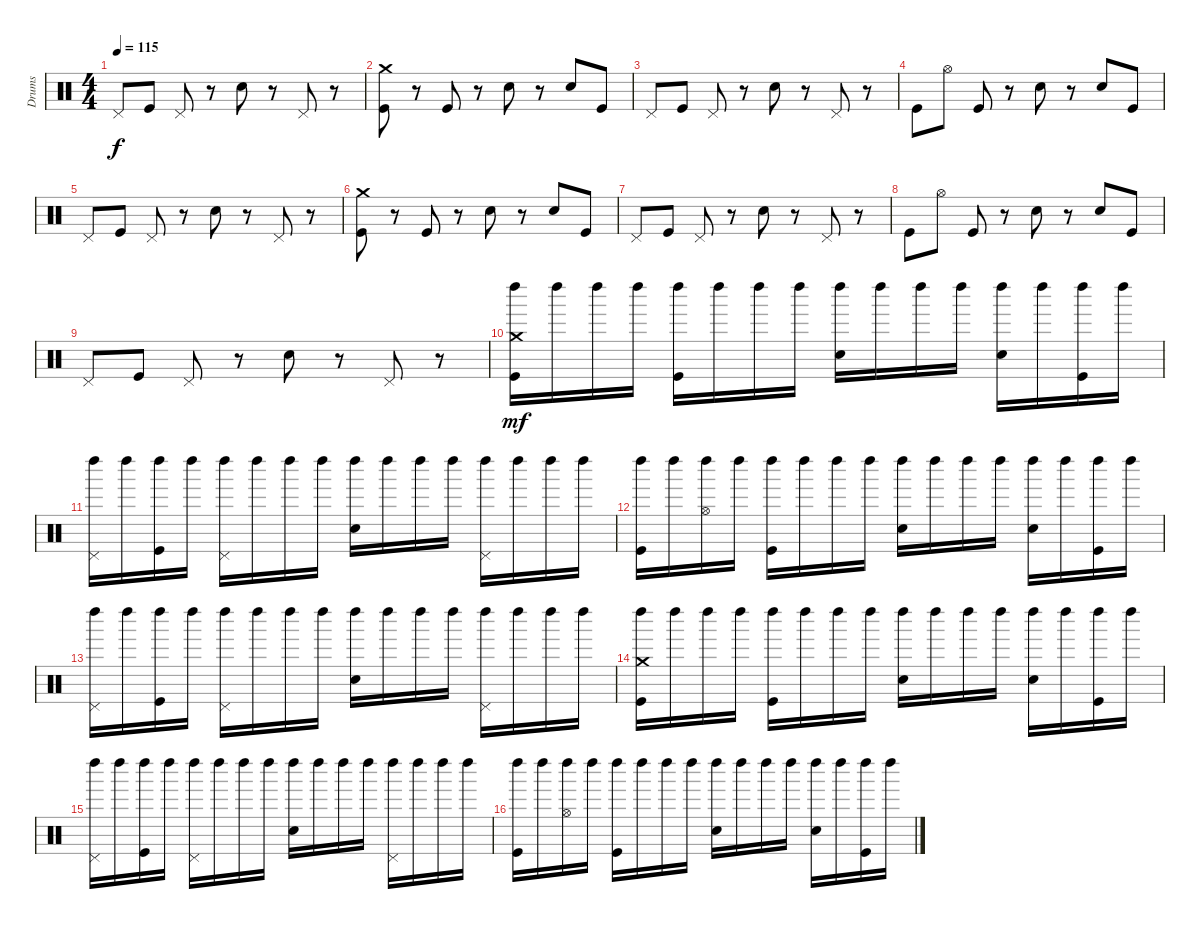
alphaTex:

\track ("Drums" "Drums") {instrument percussion}
\staff {score}
\articulation defaults
\ts (4 4)
\tempo 115
\clef neutral
\ks c "Pedal Hi-Hat (hit)".8{dy f} "Kick (hit)".8 "Pedal Hi-Hat (hit)".8
r.8 "Snare (hit) 2".8 r.8 "Pedal Hi-Hat (hit)".8 r.8 |
("Crash medium (hit)" "Kick (hit)").8 r.8 "Kick (hit)".8 r.8 "Snare (hit) 2".8 r.8 "Snare (hit) 2".8 "Kick (hit)".8 |
"Pedal Hi-Hat (hit)".8 "Kick (hit)".8 "Pedal Hi-Hat (hit)".8 r.8 "Snare (hit) 2".8 r.8 "Pedal Hi-Hat (hit)".8 r.8 |
"Kick (hit)".8 "Hi-Hat (open)".8 "Kick (hit)".8 r.8 "Snare (hit) 2".8 r.8 "Snare (hit) 2".8 "Kick (hit)".8 |
"Pedal Hi-Hat (hit)".8 "Kick (hit)".8 "Pedal Hi-Hat (hit)".8 r.8 "Snare (hit) 2".8 r.8 "Pedal Hi-Hat (hit)".8 r.8 |
("Crash medium (hit)" "Kick (hit)").8 r.8 "Kick (hit)".8 r.8 "Snare (hit) 2".8 r.8 "Snare (hit) 2".8 "Kick (hit)".8 |
"Pedal Hi-Hat (hit)".8 "Kick (hit)".8 "Pedal Hi-Hat (hit)".8 r.8 "Snare (hit) 2".8 r.8 "Pedal Hi-Hat (hit)".8 r.8 |
"Kick (hit)".8 "Hi-Hat (open)".8 "Kick (hit)".8 r.8 "Snare (hit) 2".8 r.8 "Snare (hit) 2".8 "Kick (hit)".8 |
"Pedal Hi-Hat (hit)".8 "Kick (hit)".8 "Pedal Hi-Hat (hit)".8 r.8 "Snare (hit) 2".8 r.8 "Pedal Hi-Hat (hit)".8 r.8 |
("Left Maraca (hit)" "Crash medium (hit)" "Kick (hit)").16{dy mf} "Left Maraca (hit)".16 "Left Maraca (hit)".16 "Left Maraca (hit)".16 ("Left Maraca (hit)" "Kick (hit)").16 "Left Maraca (hit)".16 "Left Maraca (hit)".16 "Left Maraca (hit)".16 ("Left Maraca (hit)" "Snare (hit) 2").16 "Left Maraca (hit)".16 "Left Maraca (hit)".16 "Left Maraca (hit)".16 ("Left Maraca (hit)" "Snare (hit) 2").16 "Left Maraca (hit)".16 ("Left Maraca (hit)" "Kick (hit)").16 "Left Maraca (hit)".16 |
("Left Maraca (hit)" "Pedal Hi-Hat (hit)").16 "Left Maraca (hit)".16 ("Left Maraca (hit)" "Kick (hit)").16 "Left Maraca (hit)".16 ("Left Maraca (hit)" "Pedal Hi-Hat (hit)").16 "Left Maraca (hit)".16 "Left Maraca (hit)".16 "Left Maraca (hit)".16 ("Left Maraca (hit)" "Snare (hit) 2").16 "Left Maraca (hit)".16 "Left Maraca (hit)".16 "Left Maraca (hit)".16 ("Left Maraca (hit)" "Pedal Hi-Hat (hit)").16 "Left Maraca (hit)".16 "Left Maraca (hit)".16 "Left Maraca (hit)".16 |
("Left Maraca (hit)" "Kick (hit)").16 "Left Maraca (hit)".16 ("Left Maraca (hit)" "Hi-Hat (open)").16 "Left Maraca (hit)".16 ("Left Maraca (hit)" "Kick (hit)").16 "Left Maraca (hit)".16 "Left Maraca (hit)".16 "Left Maraca (hit)".16 ("Left Maraca (hit)" "Snare (hit) 2").16 "Left Maraca (hit)".16 "Left Maraca (hit)".16 "Left Maraca (hit)".16 ("Left Maraca (hit)" "Snare (hit) 2").16 "Left Maraca (hit)".16 ("Left Maraca (hit)" "Kick (hit)").16 "Left Maraca (hit)".16 |
("Left Maraca (hit)" "Pedal Hi-Hat (hit)").16 "Left Maraca (hit)".16 ("Left Maraca (hit)" "Kick (hit)").16 "Left Maraca (hit)".16 ("Left Maraca (hit)" "Pedal Hi-Hat (hit)").16 "Left Maraca (hit)".16 "Left Maraca (hit)".16 "Left Maraca (hit)".16 ("Left Maraca (hit)" "Snare (hit) 2").16 "Left Maraca (hit)".16 "Left Maraca (hit)".16 "Left Maraca (hit)".16 ("Left Maraca (hit)" "Pedal Hi-Hat (hit)").16 "Left Maraca (hit)".16 "Left Maraca (hit)".16 "Left Maraca (hit)".16 |
("Left Maraca (hit)" "Crash medium (hit)" "Kick (hit)").16 "Left Maraca (hit)".16 "Left Maraca (hit)".16 "Left Maraca (hit)".16 ("Left Maraca (hit)" "Kick (hit)").16 "Left Maraca (hit)".16 "Left Maraca (hit)".16 "Left Maraca (hit)".16 ("Left Maraca (hit)" "Snare (hit) 2").16 "Left Maraca (hit)".16 "Left Maraca (hit)".16 "Left Maraca (hit)".16 ("Left Maraca (hit)" "Snare (hit) 2").16 "Left Maraca (hit)".16 ("Left Maraca (hit)" "Kick (hit)").16 "Left Maraca (hit)".16 |
("Left Maraca (hit)" "Pedal Hi-Hat (hit)").16 "Left Maraca (hit)".16 ("Left Maraca (hit)" "Kick (hit)").16 "Left Maraca (hit)".16 ("Left Maraca (hit)" "Pedal Hi-Hat (hit)").16 "Left Maraca (hit)".16 "Left Maraca (hit)".16 "Left Maraca (hit)".16 ("Left Maraca (hit)" "Snare (hit) 2").16 "Left Maraca (hit)".16 "Left Maraca (hit)".16 "Left Maraca (hit)".16 ("Left Maraca (hit)" "Pedal Hi-Hat (hit)").16 "Left Maraca (hit)".16 "Left Maraca (hit)".16 "Left Maraca (hit)".16 |
("Left Maraca (hit)" "Kick (hit)").16 "Left Maraca (hit)".16 ("Left Maraca (hit)" "Hi-Hat (open)").16 "Left Maraca (hit)".16 ("Left Maraca (hit)" "Kick (hit)").16 "Left Maraca (hit)".16 "Left Maraca (hit)".16 "Left Maraca (hit)".16 ("Left Maraca (hit)" "Snare (hit) 2").16 "Left Maraca (hit)".16 "Left Maraca (hit)".16 "Left Maraca (hit)".16 ("Left Maraca (hit)" "Snare (hit) 2").16 "Left Maraca (hit)".16 ("Left Maraca (hit)" "Kick (hit)").16 "Left Maraca (hit)".16
